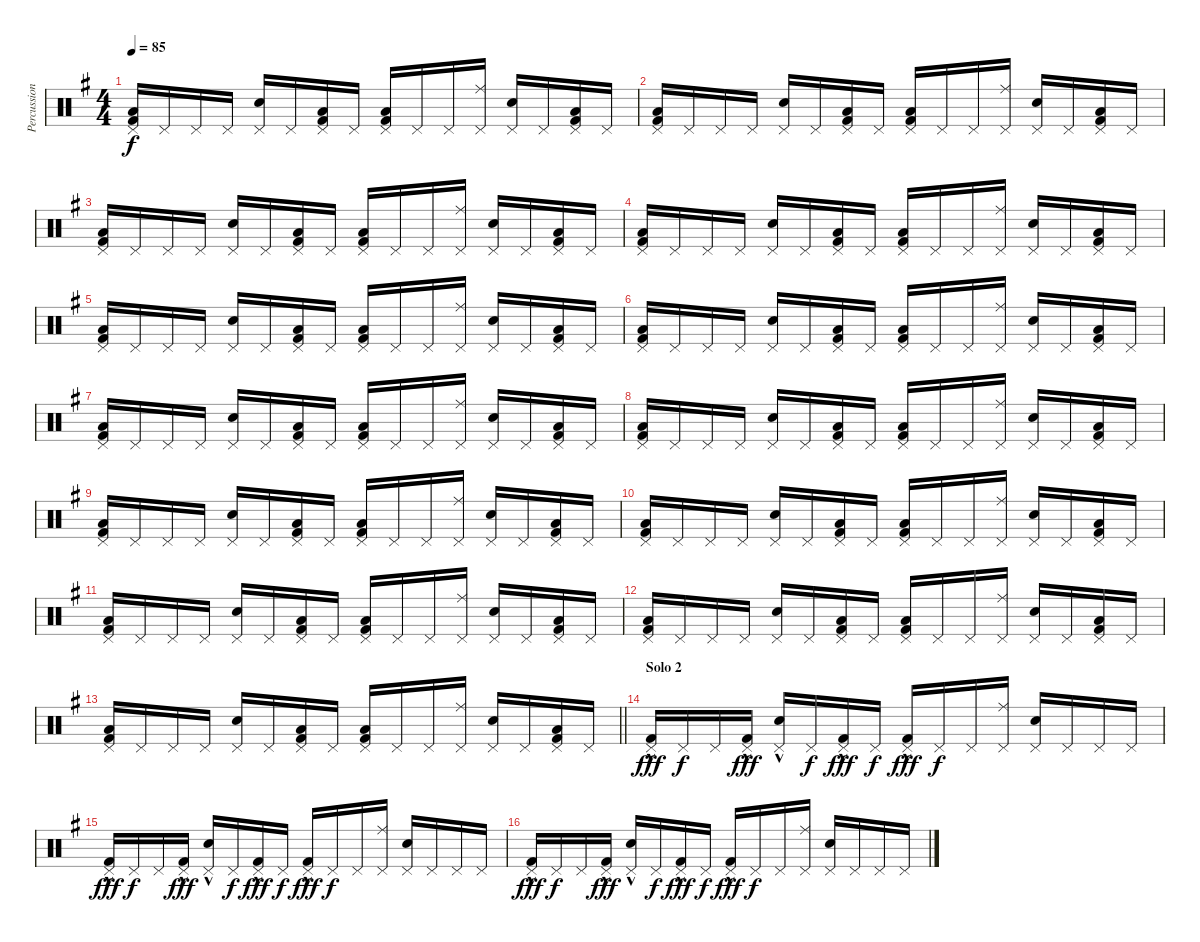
\track ("Percussion" "Percussion") {instrument percussion}
\staff {score}
\articulation defaults
\ts (4 4)
\tempo 85
\clef neutral
\ks g
("Pedal Hi-Hat (hit)" "Low Tom (hit)" "Kick (hit) 2").16{dy f} "Pedal Hi-Hat (hit)".16 "Pedal Hi-Hat (hit)".16 "Pedal Hi-Hat (hit)".16 ("Pedal Hi-Hat (hit)" "Electric Snare (hit)").16 "Pedal Hi-Hat (hit)".16 ("Pedal Hi-Hat (hit)" "Low Floor Tom (hit)" "Kick (hit) 2").16 "Pedal Hi-Hat (hit)".16 ("Pedal Hi-Hat (hit)" "Low Tom (hit)" "Kick (hit) 2").16 "Pedal Hi-Hat (hit)".16 "Pedal Hi-Hat (hit)".16 ("Pedal Hi-Hat (hit)" "Ride (middle)").16 ("Pedal Hi-Hat (hit)" "Electric Snare (hit)").16 "Pedal Hi-Hat (hit)".16 ("Pedal Hi-Hat (hit)" "Low Floor Tom (hit)" "Kick (hit) 2").16 "Pedal Hi-Hat (hit)".16 |
("Pedal Hi-Hat (hit)" "Low Tom (hit)" "Kick (hit) 2").16 "Pedal Hi-Hat (hit)".16 "Pedal Hi-Hat (hit)".16 "Pedal Hi-Hat (hit)".16 ("Pedal Hi-Hat (hit)" "Electric Snare (hit)").16 "Pedal Hi-Hat (hit)".16 ("Pedal Hi-Hat (hit)" "Low Floor Tom (hit)" "Kick (hit) 2").16 "Pedal Hi-Hat (hit)".16 ("Pedal Hi-Hat (hit)" "Low Tom (hit)" "Kick (hit) 2").16 "Pedal Hi-Hat (hit)".16 "Pedal Hi-Hat (hit)".16 ("Pedal Hi-Hat (hit)" "Ride (middle)").16 ("Pedal Hi-Hat (hit)" "Electric Snare (hit)").16 "Pedal Hi-Hat (hit)".16 ("Pedal Hi-Hat (hit)" "Low Floor Tom (hit)" "Kick (hit) 2").16 "Pedal Hi-Hat (hit)".16 |
("Pedal Hi-Hat (hit)" "Low Tom (hit)" "Kick (hit) 2").16 "Pedal Hi-Hat (hit)".16 "Pedal Hi-Hat (hit)".16 "Pedal Hi-Hat (hit)".16 ("Pedal Hi-Hat (hit)" "Electric Snare (hit)").16 "Pedal Hi-Hat (hit)".16 ("Pedal Hi-Hat (hit)" "Low Floor Tom (hit)" "Kick (hit) 2").16 "Pedal Hi-Hat (hit)".16 ("Pedal Hi-Hat (hit)" "Low Tom (hit)" "Kick (hit) 2").16 "Pedal Hi-Hat (hit)".16 "Pedal Hi-Hat (hit)".16 ("Pedal Hi-Hat (hit)" "Ride (middle)").16 ("Pedal Hi-Hat (hit)" "Electric Snare (hit)").16 "Pedal Hi-Hat (hit)".16 ("Pedal Hi-Hat (hit)" "Low Floor Tom (hit)" "Kick (hit) 2").16 "Pedal Hi-Hat (hit)".16 |
("Pedal Hi-Hat (hit)" "Low Tom (hit)" "Kick (hit) 2").16 "Pedal Hi-Hat (hit)".16 "Pedal Hi-Hat (hit)".16 "Pedal Hi-Hat (hit)".16 ("Pedal Hi-Hat (hit)" "Electric Snare (hit)").16 "Pedal Hi-Hat (hit)".16 ("Pedal Hi-Hat (hit)" "Low Floor Tom (hit)" "Kick (hit) 2").16 "Pedal Hi-Hat (hit)".16 ("Pedal Hi-Hat (hit)" "Low Tom (hit)" "Kick (hit) 2").16 "Pedal Hi-Hat (hit)".16 "Pedal Hi-Hat (hit)".16 ("Pedal Hi-Hat (hit)" "Ride (middle)").16 ("Pedal Hi-Hat (hit)" "Electric Snare (hit)").16 "Pedal Hi-Hat (hit)".16 ("Pedal Hi-Hat (hit)" "Low Floor Tom (hit)" "Kick (hit) 2").16 "Pedal Hi-Hat (hit)".16 |
("Pedal Hi-Hat (hit)" "Low Tom (hit)" "Kick (hit) 2").16 "Pedal Hi-Hat (hit)".16 "Pedal Hi-Hat (hit)".16 "Pedal Hi-Hat (hit)".16 ("Pedal Hi-Hat (hit)" "Electric Snare (hit)").16 "Pedal Hi-Hat (hit)".16 ("Pedal Hi-Hat (hit)" "Low Floor Tom (hit)" "Kick (hit) 2").16 "Pedal Hi-Hat (hit)".16 ("Pedal Hi-Hat (hit)" "Low Tom (hit)" "Kick (hit) 2").16 "Pedal Hi-Hat (hit)".16 "Pedal Hi-Hat (hit)".16 ("Pedal Hi-Hat (hit)" "Ride (middle)").16 ("Pedal Hi-Hat (hit)" "Electric Snare (hit)").16 "Pedal Hi-Hat (hit)".16 ("Pedal Hi-Hat (hit)" "Low Floor Tom (hit)" "Kick (hit) 2").16 "Pedal Hi-Hat (hit)".16 |
("Pedal Hi-Hat (hit)" "Low Tom (hit)" "Kick (hit) 2").16 "Pedal Hi-Hat (hit)".16 "Pedal Hi-Hat (hit)".16 "Pedal Hi-Hat (hit)".16 ("Pedal Hi-Hat (hit)" "Electric Snare (hit)").16 "Pedal Hi-Hat (hit)".16 ("Pedal Hi-Hat (hit)" "Low Floor Tom (hit)" "Kick (hit) 2").16 "Pedal Hi-Hat (hit)".16 ("Pedal Hi-Hat (hit)" "Low Tom (hit)" "Kick (hit) 2").16 "Pedal Hi-Hat (hit)".16 "Pedal Hi-Hat (hit)".16 ("Pedal Hi-Hat (hit)" "Ride (middle)").16 ("Pedal Hi-Hat (hit)" "Electric Snare (hit)").16 "Pedal Hi-Hat (hit)".16 ("Pedal Hi-Hat (hit)" "Low Floor Tom (hit)" "Kick (hit) 2").16 "Pedal Hi-Hat (hit)".16 |
("Pedal Hi-Hat (hit)" "Low Tom (hit)" "Kick (hit) 2").16 "Pedal Hi-Hat (hit)".16 "Pedal Hi-Hat (hit)".16 "Pedal Hi-Hat (hit)".16 ("Pedal Hi-Hat (hit)" "Electric Snare (hit)").16 "Pedal Hi-Hat (hit)".16 ("Pedal Hi-Hat (hit)" "Low Floor Tom (hit)" "Kick (hit) 2").16 "Pedal Hi-Hat (hit)".16 ("Pedal Hi-Hat (hit)" "Low Tom (hit)" "Kick (hit) 2").16 "Pedal Hi-Hat (hit)".16 "Pedal Hi-Hat (hit)".16 ("Pedal Hi-Hat (hit)" "Ride (middle)").16 ("Pedal Hi-Hat (hit)" "Electric Snare (hit)").16 "Pedal Hi-Hat (hit)".16 ("Pedal Hi-Hat (hit)" "Low Floor Tom (hit)" "Kick (hit) 2").16 "Pedal Hi-Hat (hit)".16 |
("Pedal Hi-Hat (hit)" "Low Tom (hit)" "Kick (hit) 2").16 "Pedal Hi-Hat (hit)".16 "Pedal Hi-Hat (hit)".16 "Pedal Hi-Hat (hit)".16 ("Pedal Hi-Hat (hit)" "Electric Snare (hit)").16 "Pedal Hi-Hat (hit)".16 ("Pedal Hi-Hat (hit)" "Low Floor Tom (hit)" "Kick (hit) 2").16 "Pedal Hi-Hat (hit)".16 ("Pedal Hi-Hat (hit)" "Low Tom (hit)" "Kick (hit) 2").16 "Pedal Hi-Hat (hit)".16 "Pedal Hi-Hat (hit)".16 ("Pedal Hi-Hat (hit)" "Ride (middle)").16 ("Pedal Hi-Hat (hit)" "Electric Snare (hit)").16 "Pedal Hi-Hat (hit)".16 ("Pedal Hi-Hat (hit)" "Low Floor Tom (hit)" "Kick (hit) 2").16 "Pedal Hi-Hat (hit)".16 |
("Pedal Hi-Hat (hit)" "Low Tom (hit)" "Kick (hit) 2").16 "Pedal Hi-Hat (hit)".16 "Pedal Hi-Hat (hit)".16 "Pedal Hi-Hat (hit)".16 ("Pedal Hi-Hat (hit)" "Electric Snare (hit)").16 "Pedal Hi-Hat (hit)".16 ("Pedal Hi-Hat (hit)" "Low Floor Tom (hit)" "Kick (hit) 2").16 "Pedal Hi-Hat (hit)".16 ("Pedal Hi-Hat (hit)" "Low Tom (hit)" "Kick (hit) 2").16 "Pedal Hi-Hat (hit)".16 "Pedal Hi-Hat (hit)".16 ("Pedal Hi-Hat (hit)" "Ride (middle)").16 ("Pedal Hi-Hat (hit)" "Electric Snare (hit)").16 "Pedal Hi-Hat (hit)".16 ("Pedal Hi-Hat (hit)" "Low Floor Tom (hit)" "Kick (hit) 2").16 "Pedal Hi-Hat (hit)".16 |
("Pedal Hi-Hat (hit)" "Low Tom (hit)" "Kick (hit) 2").16 "Pedal Hi-Hat (hit)".16 "Pedal Hi-Hat (hit)".16 "Pedal Hi-Hat (hit)".16 ("Pedal Hi-Hat (hit)" "Electric Snare (hit)").16 "Pedal Hi-Hat (hit)".16 ("Pedal Hi-Hat (hit)" "Low Floor Tom (hit)" "Kick (hit) 2").16 "Pedal Hi-Hat (hit)".16 ("Pedal Hi-Hat (hit)" "Low Tom (hit)" "Kick (hit) 2").16 "Pedal Hi-Hat (hit)".16 "Pedal Hi-Hat (hit)".16 ("Pedal Hi-Hat (hit)" "Ride (middle)").16 ("Pedal Hi-Hat (hit)" "Electric Snare (hit)").16 "Pedal Hi-Hat (hit)".16 ("Pedal Hi-Hat (hit)" "Low Floor Tom (hit)" "Kick (hit) 2").16 "Pedal Hi-Hat (hit)".16 |
("Pedal Hi-Hat (hit)" "Low Tom (hit)" "Kick (hit) 2").16 "Pedal Hi-Hat (hit)".16 "Pedal Hi-Hat (hit)".16 "Pedal Hi-Hat (hit)".16 ("Pedal Hi-Hat (hit)" "Electric Snare (hit)").16 "Pedal Hi-Hat (hit)".16 ("Pedal Hi-Hat (hit)" "Low Floor Tom (hit)" "Kick (hit) 2").16 "Pedal Hi-Hat (hit)".16 ("Pedal Hi-Hat (hit)" "Low Tom (hit)" "Kick (hit) 2").16 "Pedal Hi-Hat (hit)".16 "Pedal Hi-Hat (hit)".16 ("Pedal Hi-Hat (hit)" "Ride (middle)").16 ("Pedal Hi-Hat (hit)" "Electric Snare (hit)").16 "Pedal Hi-Hat (hit)".16 ("Pedal Hi-Hat (hit)" "Low Floor Tom (hit)" "Kick (hit) 2").16 "Pedal Hi-Hat (hit)".16 |
("Pedal Hi-Hat (hit)" "Low Tom (hit)" "Kick (hit) 2").16 "Pedal Hi-Hat (hit)".16 "Pedal Hi-Hat (hit)".16 "Pedal Hi-Hat (hit)".16 ("Pedal Hi-Hat (hit)" "Electric Snare (hit)").16 "Pedal Hi-Hat (hit)".16 ("Pedal Hi-Hat (hit)" "Low Floor Tom (hit)" "Kick (hit) 2").16 "Pedal Hi-Hat (hit)".16 ("Pedal Hi-Hat (hit)" "Low Tom (hit)" "Kick (hit) 2").16 "Pedal Hi-Hat (hit)".16 "Pedal Hi-Hat (hit)".16 ("Pedal Hi-Hat (hit)" "Ride (middle)").16 ("Pedal Hi-Hat (hit)" "Electric Snare (hit)").16 "Pedal Hi-Hat (hit)".16 ("Pedal Hi-Hat (hit)" "Low Floor Tom (hit)" "Kick (hit) 2").16 "Pedal Hi-Hat (hit)".16 |
\barLineRight lightlight
("Pedal Hi-Hat (hit)" "Low Tom (hit)" "Kick (hit) 2").16 "Pedal Hi-Hat (hit)".16 "Pedal Hi-Hat (hit)".16 "Pedal Hi-Hat (hit)".16 ("Pedal Hi-Hat (hit)" "Electric Snare (hit)").16 "Pedal Hi-Hat (hit)".16 ("Pedal Hi-Hat (hit)" "Low Floor Tom (hit)" "Kick (hit) 2").16 "Pedal Hi-Hat (hit)".16 ("Pedal Hi-Hat (hit)" "Low Tom (hit)" "Kick (hit) 2").16 "Pedal Hi-Hat (hit)".16 "Pedal Hi-Hat (hit)".16 ("Pedal Hi-Hat (hit)" "Ride (middle)").16 ("Pedal Hi-Hat (hit)" "Electric Snare (hit)").16 "Pedal Hi-Hat (hit)".16 ("Pedal Hi-Hat (hit)" "Low Floor Tom (hit)" "Kick (hit) 2").16 "Pedal Hi-Hat (hit)".16 |
\section ("" "Solo 2")
("Pedal Hi-Hat (hit)" "Kick (hit) 2"{hac}).16{dy fff} "Pedal Hi-Hat (hit)".16{dy f} "Pedal Hi-Hat (hit)".16 ("Pedal Hi-Hat (hit)" "Kick (hit) 2"{hac}).16{dy fff} ("Pedal Hi-Hat (hit)" "Snare (hit) 2"{hac}).16 "Pedal Hi-Hat (hit)".16{dy f} ("Pedal Hi-Hat (hit)" "Kick (hit) 2"{hac}).16{dy fff} "Pedal Hi-Hat (hit)".16{dy f} ("Pedal Hi-Hat (hit)" "Kick (hit) 2"{hac}).16{dy fff} "Pedal Hi-Hat (hit)".16{dy f} "Pedal Hi-Hat (hit)".16 ("Pedal Hi-Hat (hit)" "Ride (middle)").16 ("Pedal Hi-Hat (hit)" "Electric Snare (hit)").16 "Pedal Hi-Hat (hit)".16 "Pedal Hi-Hat (hit)".16 "Pedal Hi-Hat (hit)".16 |
("Pedal Hi-Hat (hit)" "Kick (hit) 2"{hac}).16{dy fff} "Pedal Hi-Hat (hit)".16{dy f} "Pedal Hi-Hat (hit)".16 ("Pedal Hi-Hat (hit)" "Kick (hit) 2"{hac}).16{dy fff} ("Pedal Hi-Hat (hit)" "Snare (hit) 2"{hac}).16 "Pedal Hi-Hat (hit)".16{dy f} ("Pedal Hi-Hat (hit)" "Kick (hit) 2"{hac}).16{dy fff} "Pedal Hi-Hat (hit)".16{dy f} ("Pedal Hi-Hat (hit)" "Kick (hit) 2"{hac}).16{dy fff} "Pedal Hi-Hat (hit)".16{dy f} "Pedal Hi-Hat (hit)".16 ("Pedal Hi-Hat (hit)" "Ride (middle)").16 ("Pedal Hi-Hat (hit)" "Electric Snare (hit)").16 "Pedal Hi-Hat (hit)".16 "Pedal Hi-Hat (hit)".16 "Pedal Hi-Hat (hit)".16 |
("Pedal Hi-Hat (hit)" "Kick (hit) 2"{hac}).16{dy fff} "Pedal Hi-Hat (hit)".16{dy f} "Pedal Hi-Hat (hit)".16 ("Pedal Hi-Hat (hit)" "Kick (hit) 2"{hac}).16{dy fff} ("Pedal Hi-Hat (hit)" "Snare (hit) 2"{hac}).16 "Pedal Hi-Hat (hit)".16{dy f} ("Pedal Hi-Hat (hit)" "Kick (hit) 2"{hac}).16{dy fff} "Pedal Hi-Hat (hit)".16{dy f} ("Pedal Hi-Hat (hit)" "Kick (hit) 2"{hac}).16{dy fff} "Pedal Hi-Hat (hit)".16{dy f} "Pedal Hi-Hat (hit)".16 ("Pedal Hi-Hat (hit)" "Ride (middle)").16 ("Pedal Hi-Hat (hit)" "Electric Snare (hit)").16 "Pedal Hi-Hat (hit)".16 "Pedal Hi-Hat (hit)".16 "Pedal Hi-Hat (hit)".16
